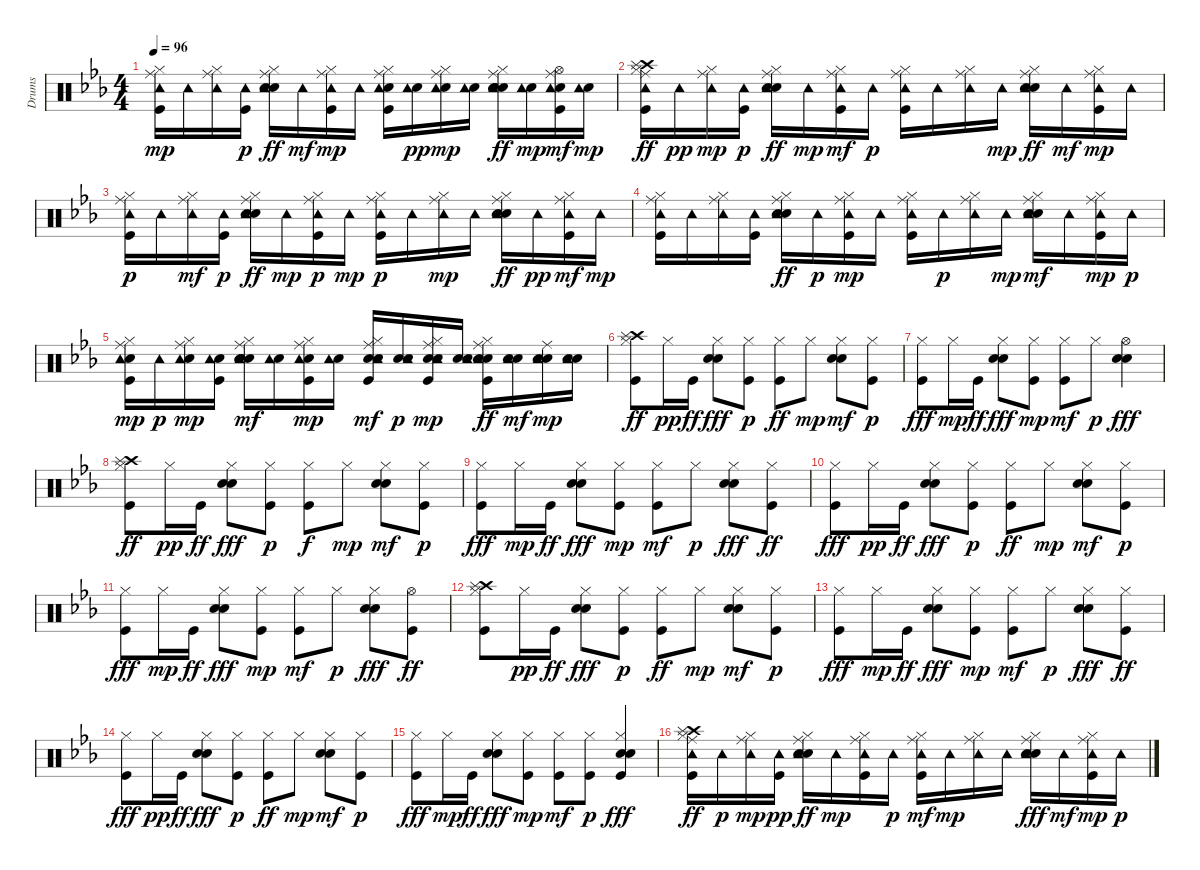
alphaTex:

\track ("Drums" "Drums") {instrument percussion}
\staff {score}
\articulation defaults
\ts (4 4)
\tempo 96
\clef neutral
\ks eb
("Kick (hit)" "Hi-Hat (closed)" "Ride (middle)" "Tambourine (hit)").16{dy mp} "Tambourine (hit)".16 ("Hi-Hat (closed)" "Ride (middle)" "Tambourine (hit)").16 ("Kick (hit)" "Tambourine (hit)").16{dy p} ("Snare (hit) 2" "Hand Clap (hit)" "Hi-Hat (closed)" "Ride (middle)" "Tambourine (hit)").16{dy ff} "Tambourine (hit)".16{dy mf} ("Kick (hit)" "Hi-Hat (closed)" "Ride (middle)" "Tambourine (hit)").16{dy mp} "Tambourine (hit)".16 ("Kick (hit)" "Electric Snare (hit)" "Hi-Hat (closed)" "Ride (middle)" "Tambourine (hit)").16 ("Electric Snare (hit)" "Tambourine (hit)").16{dy pp} ("Electric Snare (hit)" "Hi-Hat (closed)" "Ride (middle)" "Tambourine (hit)").16{dy mp} ("Electric Snare (hit)" "Tambourine (hit)").16 ("Snare (hit) 2" "Hand Clap (hit)" "Electric Snare (hit)" "Hi-Hat (closed)" "Ride (middle)" "Tambourine (hit)").16{dy ff} ("Electric Snare (hit)" "Tambourine (hit)").16{dy mp} ("Kick (hit)" "Electric Snare (hit)" "Hi-Hat (open)" "Ride (middle)" "Tambourine (hit)").16{dy mf} ("Electric Snare (hit)" "Tambourine (hit)").16{dy mp} |
("Kick (hit)" "Hi-Hat (closed)" "Crash high (hit)" "Ride (middle)" "Tambourine (hit)" "Splash (hit)").16{dy ff} "Tambourine (hit)".16{dy pp} ("Hi-Hat (closed)" "Ride (middle)" "Tambourine (hit)").16{dy mp} ("Kick (hit)" "Tambourine (hit)").16{dy p} ("Snare (hit) 2" "Hand Clap (hit)" "Hi-Hat (closed)" "Ride (middle)" "Tambourine (hit)").16{dy ff} "Tambourine (hit)".16{dy mp} ("Kick (hit)" "Hi-Hat (closed)" "Ride (middle)" "Tambourine (hit)").16{dy mf} "Tambourine (hit)".16{dy p} ("Kick (hit)" "Hi-Hat (closed)" "Ride (middle)" "Tambourine (hit)").16 "Tambourine (hit)".16 ("Hi-Hat (closed)" "Ride (middle)" "Tambourine (hit)").16 "Tambourine (hit)".16{dy mp} ("Snare (hit) 2" "Hand Clap (hit)" "Hi-Hat (closed)" "Ride (middle)" "Tambourine (hit)").16{dy ff} "Tambourine (hit)".16{dy mf} ("Kick (hit)" "Hi-Hat (closed)" "Ride (middle)" "Tambourine (hit)").16{dy mp} "Tambourine (hit)".16 |
("Kick (hit)" "Hi-Hat (closed)" "Ride (middle)" "Tambourine (hit)").16{dy p} "Tambourine (hit)".16 ("Hi-Hat (closed)" "Ride (middle)" "Tambourine (hit)").16{dy mf} ("Kick (hit)" "Tambourine (hit)").16{dy p} ("Snare (hit) 2" "Hand Clap (hit)" "Hi-Hat (closed)" "Ride (middle)" "Tambourine (hit)").16{dy ff} "Tambourine (hit)".16{dy mp} ("Kick (hit)" "Hi-Hat (closed)" "Ride (middle)" "Tambourine (hit)").16{dy p} "Tambourine (hit)".16{dy mp} ("Kick (hit)" "Hi-Hat (closed)" "Ride (middle)" "Tambourine (hit)").16{dy p} "Tambourine (hit)".16 ("Hi-Hat (closed)" "Ride (middle)" "Tambourine (hit)").16{dy mp} "Tambourine (hit)".16 ("Snare (hit) 2" "Hand Clap (hit)" "Hi-Hat (closed)" "Ride (middle)" "Tambourine (hit)").16{dy ff} "Tambourine (hit)".16{dy pp} ("Kick (hit)" "Hi-Hat (closed)" "Ride (middle)" "Tambourine (hit)").16{dy mf} "Tambourine (hit)".16{dy mp} |
("Kick (hit)" "Hi-Hat (closed)" "Ride (middle)" "Tambourine (hit)").16 "Tambourine (hit)".16 ("Hi-Hat (closed)" "Ride (middle)" "Tambourine (hit)").16 ("Kick (hit)" "Tambourine (hit)").16 ("Snare (hit) 2" "Hand Clap (hit)" "Hi-Hat (closed)" "Ride (middle)" "Tambourine (hit)").16{dy ff} "Tambourine (hit)".16{dy p} ("Kick (hit)" "Hi-Hat (closed)" "Ride (middle)" "Tambourine (hit)").16{dy mp} "Tambourine (hit)".16 ("Kick (hit)" "Hi-Hat (closed)" "Ride (middle)" "Tambourine (hit)").16 "Tambourine (hit)".16{dy p} ("Hi-Hat (closed)" "Ride (middle)" "Tambourine (hit)").16 "Tambourine (hit)".16{dy mp} ("Snare (hit) 2" "Hand Clap (hit)" "Hi-Hat (closed)" "Ride (middle)" "Tambourine (hit)").16{dy mf} "Tambourine (hit)".16 ("Kick (hit)" "Hi-Hat (closed)" "Ride (middle)" "Tambourine (hit)").16{dy mp} "Tambourine (hit)".16{dy p} |
("Kick (hit)" "Electric Snare (hit)" "Hi-Hat (closed)" "Ride (middle)" "Tambourine (hit)").16{dy mp} "Tambourine (hit)".16{dy p} ("Electric Snare (hit)" "Hi-Hat (closed)" "Ride (middle)" "Tambourine (hit)").16{dy mp} ("Kick (hit)" "Electric Snare (hit)" "Tambourine (hit)").16 ("Snare (hit) 2" "Hand Clap (hit)" "Electric Snare (hit)" "Hi-Hat (closed)" "Ride (middle)" "Tambourine (hit)").16{dy mf} ("Electric Snare (hit)" "Tambourine (hit)").16 ("Kick (hit)" "Electric Snare (hit)" "Hi-Hat (closed)" "Ride (middle)" "Tambourine (hit)").16{dy mp} ("Electric Snare (hit)" "Tambourine (hit)").16 ("Kick (hit)" "Snare (hit) 2" "Electric Snare (hit)" "Hi-Hat (closed)" "Ride (middle)" "Tambourine (hit)").16{dy mf} ("Snare (hit) 2" "Electric Snare (hit)" "Tambourine (hit)").16{dy p} ("Kick (hit)" "Snare (hit) 2" "Electric Snare (hit)" "Hi-Hat (closed)" "Ride (middle)" "Tambourine (hit)").16{dy mp} ("Snare (hit) 2" "Electric Snare (hit)" "Tambourine (hit)").16 ("Kick (hit)" "Snare (hit) 2" "Electric Snare (hit)" "Hi-Hat (closed)" "Ride (middle)" "Tambourine (hit)").16{dy ff} ("Snare (hit) 2" "Electric Snare (hit)" "Tambourine (hit)").16{dy mf} ("Snare (hit) 2" "Electric Snare (hit)" "Ride (middle)" "Tambourine (hit)").16{dy mp} ("Snare (hit) 2" "Electric Snare (hit)" "Tambourine (hit)").16 |
("Kick (hit)" "Hi-Hat (closed)" "Crash high (hit)" "Splash (hit)").8{dy ff} "Hi-Hat (closed)".16{dy pp} "Kick (hit)".16{dy ff} ("Snare (hit) 2" "Hand Clap (hit)" "Hi-Hat (closed)").8{dy fff} ("Kick (hit)" "Hi-Hat (closed)").8{dy p} ("Kick (hit)" "Hi-Hat (closed)").8{dy ff} "Hi-Hat (closed)".8{dy mp} ("Snare (hit) 2" "Hand Clap (hit)" "Hi-Hat (closed)").8{dy mf} ("Kick (hit)" "Hi-Hat (closed)").8{dy p} |
("Kick (hit)" "Hi-Hat (closed)").8{dy fff} "Hi-Hat (closed)".16{dy mp} "Kick (hit)".16{dy ff} ("Snare (hit) 2" "Hand Clap (hit)" "Hi-Hat (closed)").8{dy fff} ("Kick (hit)" "Hi-Hat (closed)").8{dy mp} ("Kick (hit)" "Hi-Hat (closed)").8{dy mf} "Hi-Hat (closed)".8{dy p} ("Snare (hit) 2" "Hand Clap (hit)" "Hi-Hat (open)").4{dy fff} |
("Kick (hit)" "Hi-Hat (closed)" "Crash high (hit)" "Splash (hit)").8{dy ff} "Hi-Hat (closed)".16{dy pp} "Kick (hit)".16{dy ff} ("Snare (hit) 2" "Hand Clap (hit)" "Hi-Hat (closed)").8{dy fff} ("Kick (hit)" "Hi-Hat (closed)").8{dy p} ("Kick (hit)" "Hi-Hat (closed)").8{dy f} "Hi-Hat (closed)".8{dy mp} ("Snare (hit) 2" "Hand Clap (hit)" "Hi-Hat (closed)").8{dy mf} ("Kick (hit)" "Hi-Hat (closed)").8{dy p} |
("Kick (hit)" "Hi-Hat (closed)").8{dy fff} "Hi-Hat (closed)".16{dy mp} "Kick (hit)".16{dy ff} ("Snare (hit) 2" "Hand Clap (hit)" "Hi-Hat (closed)").8{dy fff} ("Kick (hit)" "Hi-Hat (closed)").8{dy mp} ("Kick (hit)" "Hi-Hat (closed)").8{dy mf} "Hi-Hat (closed)".8{dy p} ("Snare (hit) 2" "Hand Clap (hit)" "Hi-Hat (closed)").8{dy fff} ("Kick (hit)" "Hi-Hat (closed)").8{dy ff} |
("Kick (hit)" "Hi-Hat (closed)").8{dy fff} "Hi-Hat (closed)".16{dy pp} "Kick (hit)".16{dy ff} ("Snare (hit) 2" "Hand Clap (hit)" "Hi-Hat (closed)").8{dy fff} ("Kick (hit)" "Hi-Hat (closed)").8{dy p} ("Kick (hit)" "Hi-Hat (closed)").8{dy ff} "Hi-Hat (closed)".8{dy mp} ("Snare (hit) 2" "Hand Clap (hit)" "Hi-Hat (closed)").8{dy mf} ("Kick (hit)" "Hi-Hat (closed)").8{dy p} |
("Kick (hit)" "Hi-Hat (closed)").8{dy fff} "Hi-Hat (closed)".16{dy mp} "Kick (hit)".16{dy ff} ("Snare (hit) 2" "Hand Clap (hit)" "Hi-Hat (closed)").8{dy fff} ("Kick (hit)" "Hi-Hat (closed)").8{dy mp} ("Kick (hit)" "Hi-Hat (closed)").8{dy mf} "Hi-Hat (closed)".8{dy p} ("Snare (hit) 2" "Hand Clap (hit)" "Hi-Hat (closed)").8{dy fff} ("Kick (hit)" "Hi-Hat (open)").8{dy ff} |
("Kick (hit)" "Hi-Hat (closed)" "Crash high (hit)" "Splash (hit)").8 "Hi-Hat (closed)".16{dy pp} "Kick (hit)".16{dy ff} ("Snare (hit) 2" "Hand Clap (hit)" "Hi-Hat (closed)").8{dy fff} ("Kick (hit)" "Hi-Hat (closed)").8{dy p} ("Kick (hit)" "Hi-Hat (closed)").8{dy ff} "Hi-Hat (closed)".8{dy mp} ("Snare (hit) 2" "Hand Clap (hit)" "Hi-Hat (closed)").8{dy mf} ("Kick (hit)" "Hi-Hat (closed)").8{dy p} |
("Kick (hit)" "Hi-Hat (closed)").8{dy fff} "Hi-Hat (closed)".16{dy mp} "Kick (hit)".16{dy ff} ("Snare (hit) 2" "Hand Clap (hit)" "Hi-Hat (closed)").8{dy fff} ("Kick (hit)" "Hi-Hat (closed)").8{dy mp} ("Kick (hit)" "Hi-Hat (closed)").8{dy mf} "Hi-Hat (closed)".8{dy p} ("Snare (hit) 2" "Hand Clap (hit)" "Hi-Hat (closed)").8{dy fff} ("Kick (hit)" "Hi-Hat (closed)").8{dy ff} |
("Kick (hit)" "Hi-Hat (closed)").8{dy fff} "Hi-Hat (closed)".16{dy pp} "Kick (hit)".16{dy ff} ("Snare (hit) 2" "Hand Clap (hit)" "Hi-Hat (closed)").8{dy fff} ("Kick (hit)" "Hi-Hat (closed)").8{dy p} ("Kick (hit)" "Hi-Hat (closed)").8{dy ff} "Hi-Hat (closed)".8{dy mp} ("Snare (hit) 2" "Hand Clap (hit)" "Hi-Hat (closed)").8{dy mf} ("Kick (hit)" "Hi-Hat (closed)").8{dy p} |
("Kick (hit)" "Hi-Hat (closed)").8{dy fff} "Hi-Hat (closed)".16{dy mp} "Kick (hit)".16{dy ff} ("Snare (hit) 2" "Hand Clap (hit)" "Hi-Hat (closed)").8{dy fff} ("Kick (hit)" "Hi-Hat (closed)").8{dy mp} ("Kick (hit)" "Hi-Hat (closed)").8{dy mf} ("Kick (hit)" "Hi-Hat (closed)").8{dy p} ("Kick (hit)" "Snare (hit) 2" "Hand Clap (hit)" "Hi-Hat (closed)").4{dy fff} |
("Kick (hit)" "Hi-Hat (closed)" "Crash high (hit)" "Ride (middle)" "Tambourine (hit)" "Splash (hit)").16{dy ff} "Tambourine (hit)".16{dy p} ("Hi-Hat (closed)" "Ride (middle)" "Tambourine (hit)").16{dy mp} ("Kick (hit)" "Tambourine (hit)").16{dy pp} ("Snare (hit) 2" "Hand Clap (hit)" "Hi-Hat (closed)" "Ride (middle)" "Tambourine (hit)").16{dy ff} "Tambourine (hit)".16{dy mp} ("Kick (hit)" "Hi-Hat (closed)" "Ride (middle)" "Tambourine (hit)").16 "Tambourine (hit)".16{dy p} ("Kick (hit)" "Hi-Hat (closed)" "Ride (middle)" "Tambourine (hit)").16{dy mf} "Tambourine (hit)".16{dy mp} ("Hi-Hat (closed)" "Ride (middle)" "Tambourine (hit)").16 "Tambourine (hit)".16 ("Snare (hit) 2" "Hand Clap (hit)" "Hi-Hat (closed)" "Ride (middle)" "Tambourine (hit)").16{dy fff} "Tambourine (hit)".16{dy mf} ("Kick (hit)" "Hi-Hat (closed)" "Ride (middle)" "Tambourine (hit)").16{dy mp} "Tambourine (hit)".16{dy p}
